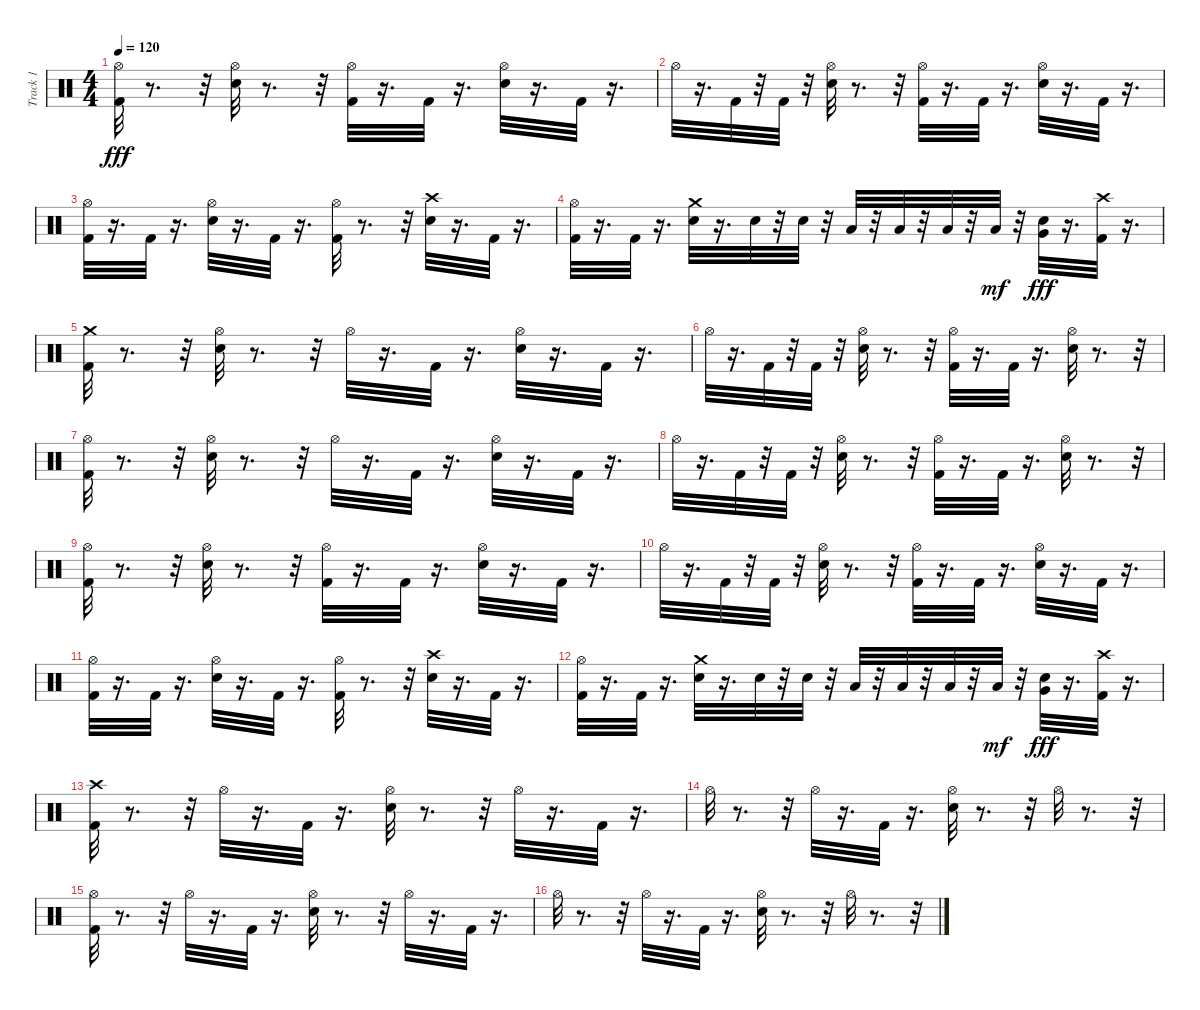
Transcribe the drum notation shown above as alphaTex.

\track ("Track 1" "Track 1") {instrument percussion}
\staff {score}
\articulation defaults
\ts (4 4)
\tempo 120
\clef neutral
\ks c
("Hi-Hat (open)" "Kick (hit) 2").32{dy fff} r.8{d} r.32 ("Hi-Hat (open)" "Snare (hit) 2").32 r.8{d} r.32 ("Hi-Hat (open)" "Kick (hit) 2").32 r.16{d} "Kick (hit) 2".32 r.16{d} ("Snare (hit) 2" "Hi-Hat (open)").32 r.16{d} "Kick (hit) 2".32 r.16{d} |
"Hi-Hat (open)".32 r.16{d} "Kick (hit) 2".32 r.32 "Kick (hit) 2".32 r.32 ("Snare (hit) 2" "Hi-Hat (open)").32 r.8{d} r.32 ("Hi-Hat (open)" "Kick (hit) 2").32 r.16{d} "Kick (hit) 2".32 r.16{d} ("Hi-Hat (open)" "Snare (hit) 2").32 r.16{d} "Kick (hit) 2".32 r.16{d} |
("Hi-Hat (open)" "Kick (hit) 2").32 r.16{d} "Kick (hit) 2".32 r.16{d} ("Electric Snare (hit)" "Hi-Hat (open)").32 r.16{d} "Kick (hit) 2".32 r.16{d} ("Hi-Hat (open)" "Kick (hit) 2").32 r.8{d} r.32 ("Electric Snare (hit)" "Crash high (hit)").32 r.16{d} "Kick (hit) 2".32 r.16{d} |
("Hi-Hat (open)" "Kick (hit) 2").32 r.16{d} "Kick (hit) 2".32 r.16{d} ("Crash medium (hit)" "Electric Snare (hit)").32 r.16{d} "Snare (hit) 2".32 r.32 "Electric Snare (hit)".32 r.32 "Low Tom (hit)".32 r.32 "Low Tom (hit)".32 r.32 "Low Tom (hit)".32 r.32 "Low Tom (hit)".32{dy mf} r.32 ("Very Low Tom (hit)" "Electric Snare (hit)").32{dy fff} r.16{d} ("Crash high (hit)" "Kick (hit) 2").32 r.16{d} |
("Crash medium (hit)" "Kick (hit) 2").32 r.8{d} r.32 ("Snare (hit) 2" "Hi-Hat (open)").32 r.8{d} r.32 "Hi-Hat (open)".32 r.16{d} "Kick (hit) 2".32 r.16{d} ("Snare (hit) 2" "Hi-Hat (open)").32 r.16{d} "Kick (hit) 2".32 r.16{d} |
"Hi-Hat (open)".32 r.16{d} "Kick (hit) 2".32 r.32 "Kick (hit) 2".32 r.32 ("Snare (hit) 2" "Hi-Hat (open)").32 r.8{d} r.32 ("Hi-Hat (open)" "Kick (hit) 2").32 r.16{d} "Kick (hit) 2".32 r.16{d} ("Snare (hit) 2" "Hi-Hat (open)").32 r.8{d} r.32 |
("Hi-Hat (open)" "Kick (hit) 2").32 r.8{d} r.32 ("Snare (hit) 2" "Hi-Hat (open)").32 r.8{d} r.32 "Hi-Hat (open)".32 r.16{d} "Kick (hit) 2".32 r.16{d} ("Hi-Hat (open)" "Snare (hit) 2").32 r.16{d} "Kick (hit) 2".32 r.16{d} |
"Hi-Hat (open)".32 r.16{d} "Kick (hit) 2".32 r.32 "Kick (hit) 2".32 r.32 ("Snare (hit) 2" "Hi-Hat (open)").32 r.8{d} r.32 ("Hi-Hat (open)" "Kick (hit) 2").32 r.16{d} "Kick (hit) 2".32 r.16{d} ("Snare (hit) 2" "Hi-Hat (open)").32 r.8{d} r.32 |
("Hi-Hat (open)" "Kick (hit) 2").32 r.8{d} r.32 ("Hi-Hat (open)" "Snare (hit) 2").32 r.8{d} r.32 ("Hi-Hat (open)" "Kick (hit) 2").32 r.16{d} "Kick (hit) 2".32 r.16{d} ("Snare (hit) 2" "Hi-Hat (open)").32 r.16{d} "Kick (hit) 2".32 r.16{d} |
"Hi-Hat (open)".32 r.16{d} "Kick (hit) 2".32 r.32 "Kick (hit) 2".32 r.32 ("Snare (hit) 2" "Hi-Hat (open)").32 r.8{d} r.32 ("Hi-Hat (open)" "Kick (hit) 2").32 r.16{d} "Kick (hit) 2".32 r.16{d} ("Hi-Hat (open)" "Snare (hit) 2").32 r.16{d} "Kick (hit) 2".32 r.16{d} |
("Hi-Hat (open)" "Kick (hit) 2").32 r.16{d} "Kick (hit) 2".32 r.16{d} ("Electric Snare (hit)" "Hi-Hat (open)").32 r.16{d} "Kick (hit) 2".32 r.16{d} ("Hi-Hat (open)" "Kick (hit) 2").32 r.8{d} r.32 ("Electric Snare (hit)" "Crash high (hit)").32 r.16{d} "Kick (hit) 2".32 r.16{d} |
("Hi-Hat (open)" "Kick (hit) 2").32 r.16{d} "Kick (hit) 2".32 r.16{d} ("Crash medium (hit)" "Electric Snare (hit)").32 r.16{d} "Snare (hit) 2".32 r.32 "Electric Snare (hit)".32 r.32 "Low Tom (hit)".32 r.32 "Low Tom (hit)".32 r.32 "Low Tom (hit)".32 r.32 "Low Tom (hit)".32{dy mf} r.32 ("Very Low Tom (hit)" "Electric Snare (hit)").32{dy fff} r.16{d} ("Crash high (hit)" "Kick (hit) 2").32 r.16{d} |
("Crash high (hit)" "Kick (hit) 2").32 r.8{d} r.32 "Hi-Hat (open)".32 r.16{d} "Kick (hit) 2".32 r.16{d} ("Hi-Hat (open)" "Snare (hit) 2").32 r.8{d} r.32 "Hi-Hat (open)".32 r.16{d} "Kick (hit) 2".32 r.16{d} |
"Hi-Hat (open)".32 r.8{d} r.32 "Hi-Hat (open)".32 r.16{d} "Kick (hit) 2".32 r.16{d} ("Hi-Hat (open)" "Snare (hit) 2").32 r.8{d} r.32 "Hi-Hat (open)".32 r.8{d} r.32 |
("Hi-Hat (open)" "Kick (hit) 2").32 r.8{d} r.32 "Hi-Hat (open)".32 r.16{d} "Kick (hit) 2".32 r.16{d} ("Hi-Hat (open)" "Snare (hit) 2").32 r.8{d} r.32 "Hi-Hat (open)".32 r.16{d} "Kick (hit) 2".32 r.16{d} |
"Hi-Hat (open)".32 r.8{d} r.32 "Hi-Hat (open)".32 r.16{d} "Kick (hit) 2".32 r.16{d} ("Hi-Hat (open)" "Snare (hit) 2").32 r.8{d} r.32 "Hi-Hat (open)".32 r.8{d} r.32
